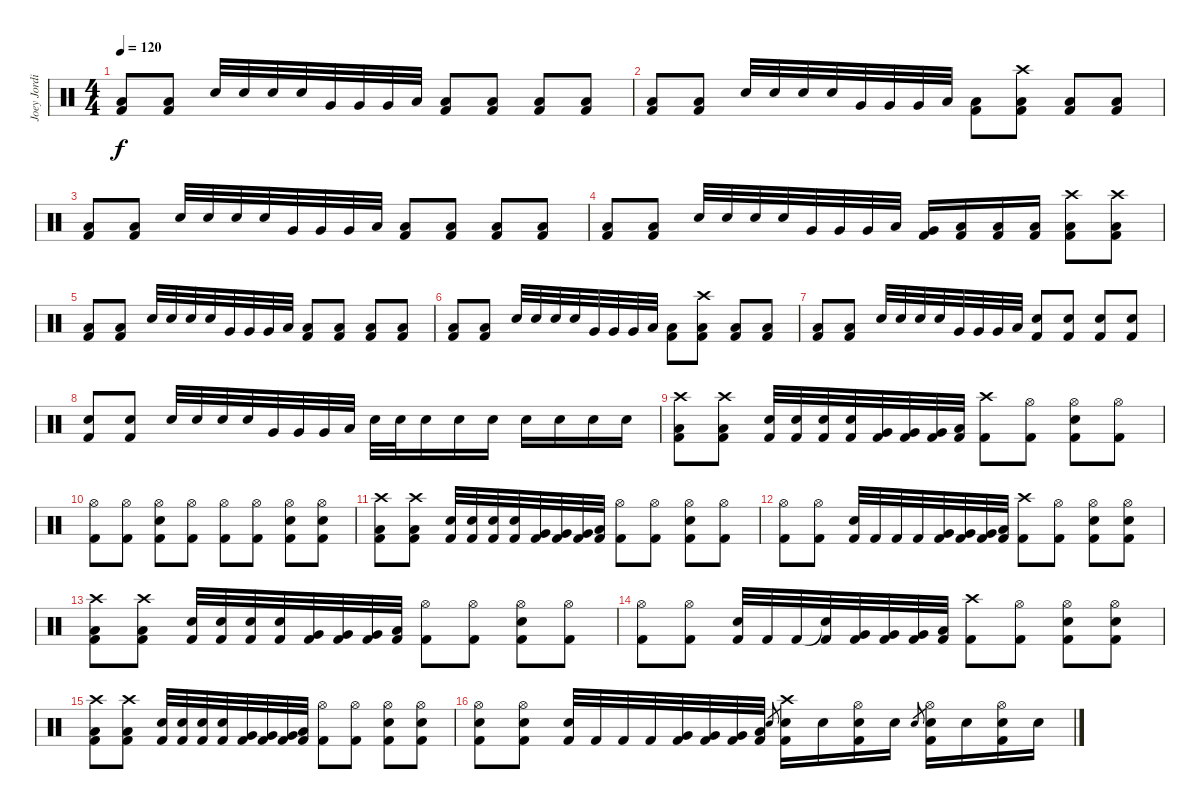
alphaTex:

\track ("Joey Jordison   #1" "Joey Jordi") {instrument percussion}
\staff {score}
\articulation defaults
\ts (4 4)
\tempo 120
\clef neutral
\ks c
("Low Floor Tom (hit)" "Kick (hit) 2").8{dy f} ("Low Floor Tom (hit)" "Kick (hit) 2").8 "Electric Snare (hit)".32 "Electric Snare (hit)".32 "Electric Snare (hit)".32 "Electric Snare (hit)".32 "Very Low Tom (hit)".32 "Very Low Tom (hit)".32 "Very Low Tom (hit)".32 "Low Floor Tom (hit)".32 ("Low Floor Tom (hit)" "Kick (hit) 2").8 ("Low Floor Tom (hit)" "Kick (hit) 2").8 ("Low Floor Tom (hit)" "Kick (hit) 2").8 ("Low Floor Tom (hit)" "Kick (hit) 2").8 |
("Low Floor Tom (hit)" "Kick (hit) 2").8 ("Low Floor Tom (hit)" "Kick (hit) 2").8 "Electric Snare (hit)".32 "Electric Snare (hit)".32 "Electric Snare (hit)".32 "Electric Snare (hit)".32 "Very Low Tom (hit)".32 "Very Low Tom (hit)".32 "Very Low Tom (hit)".32 "Low Floor Tom (hit)".32 ("Low Floor Tom (hit)" "Kick (hit) 2").8 ("Crash high (hit)" "Low Floor Tom (hit)" "Kick (hit) 2").8 ("Low Floor Tom (hit)" "Kick (hit) 2").8 ("Low Floor Tom (hit)" "Kick (hit) 2").8 |
("Low Floor Tom (hit)" "Kick (hit) 2").8 ("Low Floor Tom (hit)" "Kick (hit) 2").8 "Electric Snare (hit)".32 "Electric Snare (hit)".32 "Electric Snare (hit)".32 "Electric Snare (hit)".32 "Very Low Tom (hit)".32 "Very Low Tom (hit)".32 "Very Low Tom (hit)".32 "Low Floor Tom (hit)".32 ("Low Floor Tom (hit)" "Kick (hit) 2").8 ("Low Floor Tom (hit)" "Kick (hit) 2").8 ("Low Floor Tom (hit)" "Kick (hit) 2").8 ("Low Floor Tom (hit)" "Kick (hit) 2").8 |
("Low Floor Tom (hit)" "Kick (hit) 2").8 ("Low Floor Tom (hit)" "Kick (hit) 2").8 "Electric Snare (hit)".32 "Electric Snare (hit)".32 "Electric Snare (hit)".32 "Electric Snare (hit)".32 "Very Low Tom (hit)".32 "Very Low Tom (hit)".32 "Very Low Tom (hit)".32 "Low Floor Tom (hit)".32 ("Very Low Tom (hit)" "Kick (hit) 2").16 ("Low Floor Tom (hit)" "Kick (hit) 2").16 ("Low Floor Tom (hit)" "Kick (hit) 2").16 ("Low Floor Tom (hit)" "Kick (hit) 2").16 ("Crash high (hit)" "Low Floor Tom (hit)" "Kick (hit) 2").8 ("Crash high (hit)" "Low Floor Tom (hit)" "Kick (hit) 2").8 |
("Low Floor Tom (hit)" "Kick (hit) 2").8 ("Low Floor Tom (hit)" "Kick (hit) 2").8 "Electric Snare (hit)".32 "Electric Snare (hit)".32 "Electric Snare (hit)".32 "Electric Snare (hit)".32 "Very Low Tom (hit)".32 "Very Low Tom (hit)".32 "Very Low Tom (hit)".32 "Low Floor Tom (hit)".32 ("Low Floor Tom (hit)" "Kick (hit) 2").8 ("Low Floor Tom (hit)" "Kick (hit) 2").8 ("Low Floor Tom (hit)" "Kick (hit) 2").8 ("Low Floor Tom (hit)" "Kick (hit) 2").8 |
("Low Floor Tom (hit)" "Kick (hit) 2").8 ("Low Floor Tom (hit)" "Kick (hit) 2").8 "Electric Snare (hit)".32 "Electric Snare (hit)".32 "Electric Snare (hit)".32 "Electric Snare (hit)".32 "Very Low Tom (hit)".32 "Very Low Tom (hit)".32 "Very Low Tom (hit)".32 "Low Floor Tom (hit)".32 ("Low Floor Tom (hit)" "Kick (hit) 2").8 ("Crash high (hit)" "Low Floor Tom (hit)" "Kick (hit) 2").8 ("Low Floor Tom (hit)" "Kick (hit) 2").8 ("Low Floor Tom (hit)" "Kick (hit) 2").8 |
("Low Floor Tom (hit)" "Kick (hit) 2").8 ("Low Floor Tom (hit)" "Kick (hit) 2").8 "Electric Snare (hit)".32 "Electric Snare (hit)".32 "Electric Snare (hit)".32 "Electric Snare (hit)".32 "Very Low Tom (hit)".32 "Very Low Tom (hit)".32 "Very Low Tom (hit)".32 "Low Floor Tom (hit)".32 ("Electric Snare (hit)" "Kick (hit) 2").8 ("Electric Snare (hit)" "Kick (hit) 2").8 ("Electric Snare (hit)" "Kick (hit) 2").8 ("Electric Snare (hit)" "Kick (hit) 2").8 |
("Electric Snare (hit)" "Kick (hit) 2").8 ("Electric Snare (hit)" "Kick (hit) 2").8 "Electric Snare (hit)".32 "Electric Snare (hit)".32 "Electric Snare (hit)".32 "Electric Snare (hit)".32 "Very Low Tom (hit)".32 "Very Low Tom (hit)".32 "Very Low Tom (hit)".32 "Low Floor Tom (hit)".32 "Electric Snare (hit)".32 "Electric Snare (hit)".32 "Electric Snare (hit)".16 "Electric Snare (hit)".16 "Electric Snare (hit)".16 "Electric Snare (hit)".16 "Electric Snare (hit)".16 "Electric Snare (hit)".16 "Electric Snare (hit)".16 |
("Crash high (hit)" "Low Floor Tom (hit)" "Kick (hit) 2").8 ("Crash high (hit)" "Low Floor Tom (hit)" "Kick (hit) 2").8 ("Electric Snare (hit)" "Kick (hit) 2").32 ("Electric Snare (hit)" "Kick (hit) 2").32 ("Electric Snare (hit)" "Kick (hit) 2").32 ("Electric Snare (hit)" "Kick (hit) 2").32 ("Very Low Tom (hit)" "Kick (hit) 2").32 ("Very Low Tom (hit)" "Kick (hit) 2").32 ("Very Low Tom (hit)" "Kick (hit) 2").32 ("Low Floor Tom (hit)" "Kick (hit) 2").32 ("Crash high (hit)" "Kick (hit) 2").8 ("Hi-Hat (open)" "Kick (hit) 2").8 ("Hi-Hat (open)" "Electric Snare (hit)" "Kick (hit) 2").8 ("Hi-Hat (open)" "Kick (hit) 2").8 |
("Hi-Hat (open)" "Kick (hit) 2").8 ("Hi-Hat (open)" "Kick (hit) 2").8 ("Hi-Hat (open)" "Electric Snare (hit)" "Kick (hit) 2").8 ("Hi-Hat (open)" "Kick (hit) 2").8 ("Hi-Hat (open)" "Kick (hit) 2").8 ("Hi-Hat (open)" "Kick (hit) 2").8 ("Hi-Hat (open)" "Electric Snare (hit)" "Kick (hit) 2").8 ("Hi-Hat (open)" "Electric Snare (hit)" "Kick (hit) 2").8 |
("Crash high (hit)" "Low Floor Tom (hit)" "Kick (hit) 2").8 ("Crash high (hit)" "Low Floor Tom (hit)" "Kick (hit) 2").8 ("Electric Snare (hit)" "Kick (hit) 2").32 ("Electric Snare (hit)" "Kick (hit) 2").32 ("Electric Snare (hit)" "Kick (hit) 2").32 ("Electric Snare (hit)" "Kick (hit) 2").32 ("Very Low Tom (hit)" "Kick (hit) 2").32 ("Very Low Tom (hit)" "Kick (hit) 2").32 ("Very Low Tom (hit)" "Kick (hit) 2").32 ("Low Floor Tom (hit)" "Kick (hit) 2").32 ("Hi-Hat (open)" "Kick (hit) 2").8 ("Hi-Hat (open)" "Kick (hit) 2").8 ("Hi-Hat (open)" "Electric Snare (hit)" "Kick (hit) 2").8 ("Hi-Hat (open)" "Kick (hit) 2").8 |
("Hi-Hat (open)" "Kick (hit) 2").8 ("Hi-Hat (open)" "Kick (hit) 2").8 ("Electric Snare (hit)" "Kick (hit) 2").32 "Kick (hit) 2".32 "Kick (hit) 2".32 "Kick (hit) 2".32 ("Very Low Tom (hit)" "Kick (hit) 2").32 ("Very Low Tom (hit)" "Kick (hit) 2").32 ("Very Low Tom (hit)" "Kick (hit) 2").32 ("Low Floor Tom (hit)" "Kick (hit) 2").32 ("Crash high (hit)" "Kick (hit) 2").8 ("Hi-Hat (open)" "Kick (hit) 2").8 ("Hi-Hat (open)" "Electric Snare (hit)" "Kick (hit) 2").8 ("Hi-Hat (open)" "Electric Snare (hit)" "Kick (hit) 2").8 |
("Crash high (hit)" "Low Floor Tom (hit)" "Kick (hit) 2").8 ("Crash high (hit)" "Low Floor Tom (hit)" "Kick (hit) 2").8 ("Electric Snare (hit)" "Kick (hit) 2").32 ("Electric Snare (hit)" "Kick (hit) 2").32 ("Electric Snare (hit)" "Kick (hit) 2").32 ("Electric Snare (hit)" "Kick (hit) 2").32 ("Very Low Tom (hit)" "Kick (hit) 2").32 ("Very Low Tom (hit)" "Kick (hit) 2").32 ("Very Low Tom (hit)" "Kick (hit) 2").32 ("Low Floor Tom (hit)" "Kick (hit) 2").32 ("Hi-Hat (open)" "Kick (hit) 2").8 ("Hi-Hat (open)" "Kick (hit) 2").8 ("Hi-Hat (open)" "Electric Snare (hit)" "Kick (hit) 2").8 ("Hi-Hat (open)" "Kick (hit) 2").8 |
("Hi-Hat (open)" "Kick (hit) 2").8 ("Hi-Hat (open)" "Kick (hit) 2").8 ("Electric Snare (hit)" "Kick (hit) 2").32 "Kick (hit) 2".32 "Kick (hit) 2".32 ("Snare (hit)"{t} "Kick (hit) 2").32 ("Very Low Tom (hit)" "Kick (hit) 2").32 ("Very Low Tom (hit)" "Kick (hit) 2").32 ("Very Low Tom (hit)" "Kick (hit) 2").32 ("Low Floor Tom (hit)" "Kick (hit) 2").32 ("Crash high (hit)" "Kick (hit) 2").8 ("Hi-Hat (open)" "Kick (hit) 2").8 ("Hi-Hat (open)" "Electric Snare (hit)" "Kick (hit) 2").8 ("Hi-Hat (open)" "Electric Snare (hit)" "Kick (hit) 2").8 |
("Crash high (hit)" "Low Floor Tom (hit)" "Kick (hit) 2").8 ("Crash high (hit)" "Low Floor Tom (hit)" "Kick (hit) 2").8 ("Electric Snare (hit)" "Kick (hit) 2").32 ("Electric Snare (hit)" "Kick (hit) 2").32 ("Electric Snare (hit)" "Kick (hit) 2").32 ("Electric Snare (hit)" "Kick (hit) 2").32 ("Very Low Tom (hit)" "Kick (hit) 2").32 ("Very Low Tom (hit)" "Kick (hit) 2").32 ("Very Low Tom (hit)" "Kick (hit) 2").32 ("Low Floor Tom (hit)" "Kick (hit) 2").32 ("Hi-Hat (open)" "Kick (hit) 2").8 ("Hi-Hat (open)" "Kick (hit) 2").8 ("Hi-Hat (open)" "Electric Snare (hit)" "Kick (hit) 2").8 ("Hi-Hat (open)" "Electric Snare (hit)" "Kick (hit) 2").8 |
("Hi-Hat (open)" "Electric Snare (hit)" "Kick (hit) 2").8 ("Hi-Hat (open)" "Electric Snare (hit)" "Kick (hit) 2").8 ("Electric Snare (hit)" "Kick (hit) 2").32 "Kick (hit) 2".32 "Kick (hit) 2".32 "Kick (hit) 2".32 ("Very Low Tom (hit)" "Kick (hit) 2").32 ("Very Low Tom (hit)" "Kick (hit) 2").32 ("Very Low Tom (hit)" "Kick (hit) 2").32 ("Low Floor Tom (hit)" "Kick (hit) 2").32 "Electric Snare (hit)".8{gr} ("Crash high (hit)" "Electric Snare (hit)" "Kick (hit) 2").16 "Electric Snare (hit)".16 ("Hi-Hat (open)" "Electric Snare (hit)" "Kick (hit) 2").16 "Electric Snare (hit)".16 "Electric Snare (hit)".8{gr} ("Hi-Hat (open)" "Electric Snare (hit)" "Kick (hit) 2").16 "Electric Snare (hit)".16 ("Hi-Hat (open)" "Electric Snare (hit)" "Kick (hit) 2").16 "Electric Snare (hit)".16
